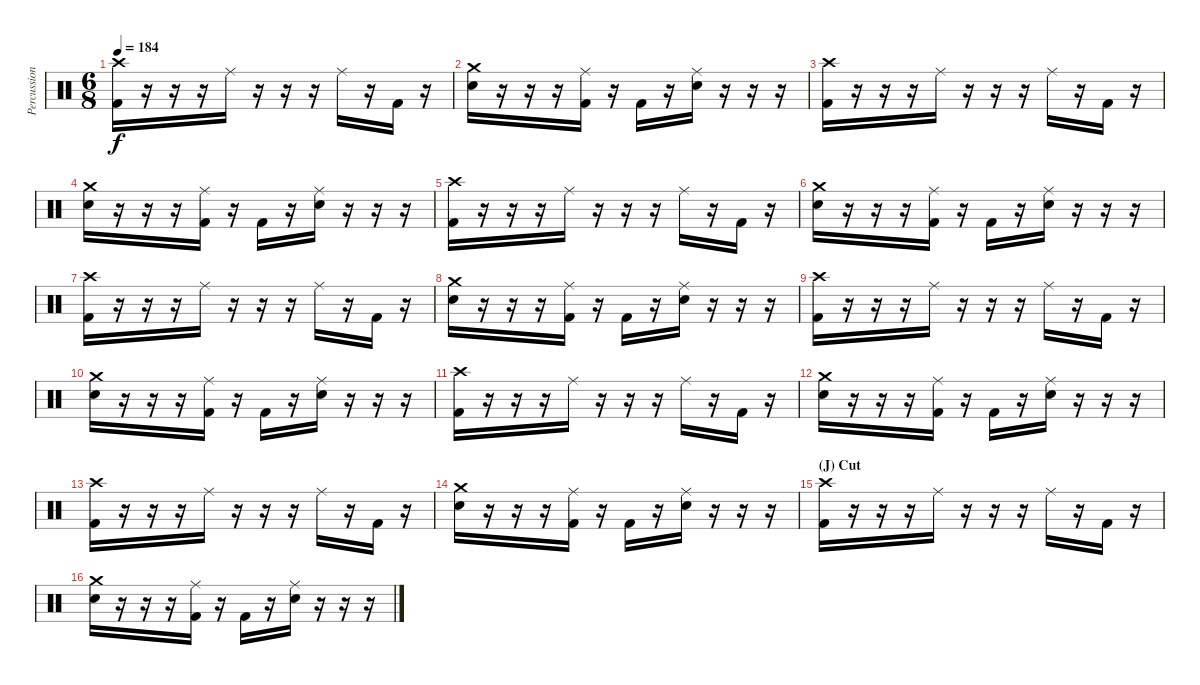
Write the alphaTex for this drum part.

\track ("Percussion" "Percussion") {instrument percussion}
\staff {score}
\articulation defaults
\ts (6 8)
\tempo 184
\clef neutral
\ks c
("Crash high (hit)" "Kick (hit) 2").16{dy f} r.16 r.16 r.16 "Ride (middle)".16 r.16 r.16 r.16 "Ride (middle)".16 r.16 "Kick (hit) 2".16 r.16 |
("Crash medium (hit)" "Electric Snare (hit)").16 r.16 r.16 r.16 ("Ride (middle)" "Kick (hit) 2").16 r.16 "Kick (hit) 2".16 r.16 ("Ride (middle)" "Electric Snare (hit)").16 r.16 r.16 r.16 |
("Crash high (hit)" "Kick (hit) 2").16 r.16 r.16 r.16 "Ride (middle)".16 r.16 r.16 r.16 "Ride (middle)".16 r.16 "Kick (hit) 2".16 r.16 |
("Crash medium (hit)" "Electric Snare (hit)").16 r.16 r.16 r.16 ("Ride (middle)" "Kick (hit) 2").16 r.16 "Kick (hit) 2".16 r.16 ("Ride (middle)" "Electric Snare (hit)").16 r.16 r.16 r.16 |
("Crash high (hit)" "Kick (hit) 2").16 r.16 r.16 r.16 "Ride (middle)".16 r.16 r.16 r.16 "Ride (middle)".16 r.16 "Kick (hit) 2".16 r.16 |
("Crash medium (hit)" "Electric Snare (hit)").16 r.16 r.16 r.16 ("Ride (middle)" "Kick (hit) 2").16 r.16 "Kick (hit) 2".16 r.16 ("Ride (middle)" "Electric Snare (hit)").16 r.16 r.16 r.16 |
("Crash high (hit)" "Kick (hit) 2").16 r.16 r.16 r.16 "Ride (middle)".16 r.16 r.16 r.16 "Ride (middle)".16 r.16 "Kick (hit) 2".16 r.16 |
("Crash medium (hit)" "Electric Snare (hit)").16 r.16 r.16 r.16 ("Ride (middle)" "Kick (hit) 2").16 r.16 "Kick (hit) 2".16 r.16 ("Ride (middle)" "Electric Snare (hit)").16 r.16 r.16 r.16 |
("Crash high (hit)" "Kick (hit) 2").16 r.16 r.16 r.16 "Ride (middle)".16 r.16 r.16 r.16 "Ride (middle)".16 r.16 "Kick (hit) 2".16 r.16 |
("Crash medium (hit)" "Electric Snare (hit)").16 r.16 r.16 r.16 ("Ride (middle)" "Kick (hit) 2").16 r.16 "Kick (hit) 2".16 r.16 ("Ride (middle)" "Electric Snare (hit)").16 r.16 r.16 r.16 |
("Crash high (hit)" "Kick (hit) 2").16 r.16 r.16 r.16 "Ride (middle)".16 r.16 r.16 r.16 "Ride (middle)".16 r.16 "Kick (hit) 2".16 r.16 |
("Crash medium (hit)" "Electric Snare (hit)").16 r.16 r.16 r.16 ("Ride (middle)" "Kick (hit) 2").16 r.16 "Kick (hit) 2".16 r.16 ("Ride (middle)" "Electric Snare (hit)").16 r.16 r.16 r.16 |
("Crash high (hit)" "Kick (hit) 2").16 r.16 r.16 r.16 "Ride (middle)".16 r.16 r.16 r.16 "Ride (middle)".16 r.16 "Kick (hit) 2".16 r.16 |
("Crash medium (hit)" "Electric Snare (hit)").16 r.16 r.16 r.16 ("Ride (middle)" "Kick (hit) 2").16 r.16 "Kick (hit) 2".16 r.16 ("Ride (middle)" "Electric Snare (hit)").16 r.16 r.16 r.16 |
\section ("" "(J) Cut")
("Crash high (hit)" "Kick (hit) 2").16 r.16 r.16 r.16 "Ride (middle)".16 r.16 r.16 r.16 "Ride (middle)".16 r.16 "Kick (hit) 2".16 r.16 |
("Crash medium (hit)" "Electric Snare (hit)").16 r.16 r.16 r.16 ("Ride (middle)" "Kick (hit) 2").16 r.16 "Kick (hit) 2".16 r.16 ("Ride (middle)" "Electric Snare (hit)").16 r.16 r.16 r.16
